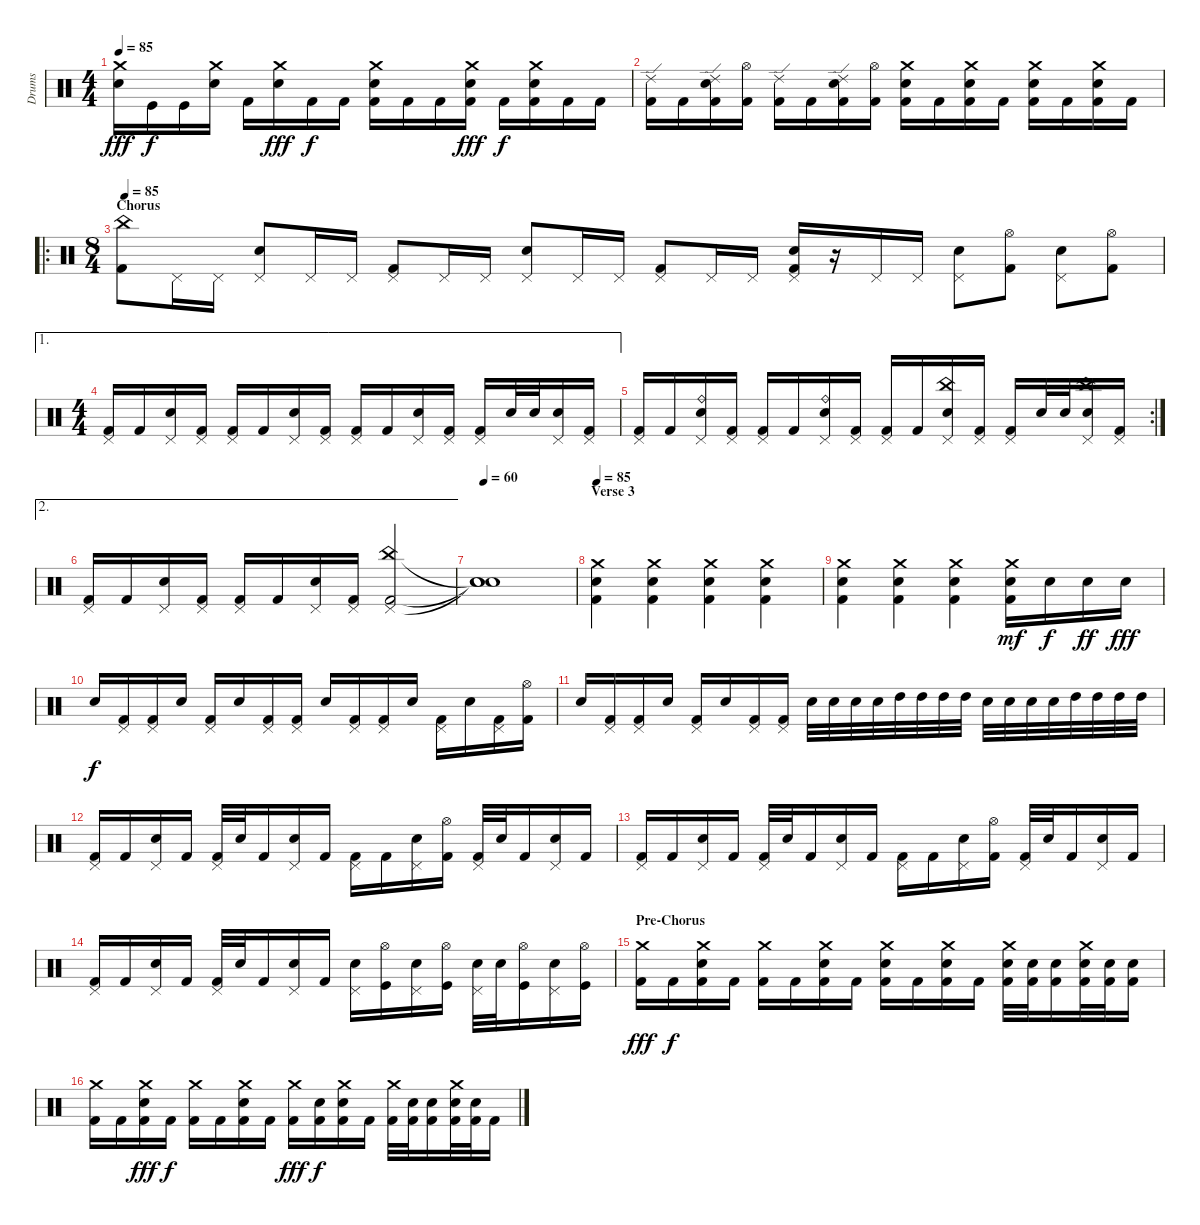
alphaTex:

\track ("Drums" "Drums") {instrument percussion}
\staff {score}
\articulation defaults
\ts (4 4)
\tempo 85
\clef neutral
\ks c
("Crash medium (hit)" "Electric Snare (hit)").16{dy fff} "Kick (hit)".16{dy f} "Kick (hit)".16 ("Crash medium (hit)" "Electric Snare (hit)").16 "Kick (hit) 2".16 ("Crash medium (hit)" "Electric Snare (hit)").16{dy fff} "Kick (hit) 2".16{dy f} "Kick (hit) 2".16 ("Crash medium (hit)" "Electric Snare (hit)" "Kick (hit) 2").16 "Kick (hit) 2".16 "Kick (hit) 2".16 ("Crash medium (hit)" "Electric Snare (hit)" "Kick (hit) 2").16{dy fff} "Kick (hit) 2".16{dy f} ("Crash medium (hit)" "Electric Snare (hit)" "Kick (hit) 2").16 "Kick (hit) 2".16 "Kick (hit) 2".16 |
("Ride (edge) 2" "Kick (hit) 2").16 "Kick (hit) 2".16 ("Ride (edge) 2" "Electric Snare (hit)" "Kick (hit) 2").16 ("Hi-Hat (open)" "Kick (hit) 2").16 ("Ride (edge) 2" "Kick (hit) 2").16 "Kick (hit) 2".16 ("Ride (edge) 2" "Electric Snare (hit)" "Kick (hit) 2").16 ("Hi-Hat (open)" "Kick (hit) 2").16 ("Crash medium (hit)" "Electric Snare (hit)" "Kick (hit) 2").16 "Kick (hit) 2".16 ("Crash medium (hit)" "Electric Snare (hit)" "Kick (hit) 2").16 "Kick (hit) 2".16 ("Crash medium (hit)" "Electric Snare (hit)" "Kick (hit) 2").16 "Kick (hit) 2".16 ("Crash medium (hit)" "Electric Snare (hit)" "Kick (hit) 2").16 "Kick (hit) 2".16 |
\ro
\ts (8 4)
\section ("" "Chorus")
\tempo 85
("China (hit)" "Kick (hit) 2").8 "Pedal Hi-Hat (hit)".16 "Pedal Hi-Hat (hit)".16 ("Pedal Hi-Hat (hit)" "Electric Snare (hit)").8 "Pedal Hi-Hat (hit)".16 "Pedal Hi-Hat (hit)".16 ("Pedal Hi-Hat (hit)" "Kick (hit) 2").8 "Pedal Hi-Hat (hit)".16 "Pedal Hi-Hat (hit)".16 ("Pedal Hi-Hat (hit)" "Electric Snare (hit)").8 "Pedal Hi-Hat (hit)".16 "Pedal Hi-Hat (hit)".16 ("Pedal Hi-Hat (hit)" "Kick (hit) 2").8 "Pedal Hi-Hat (hit)".16 "Pedal Hi-Hat (hit)".16 ("Pedal Hi-Hat (hit)" "Electric Snare (hit)" "Kick (hit) 2").16 r.16 "Pedal Hi-Hat (hit)".16 "Pedal Hi-Hat (hit)".16 ("Pedal Hi-Hat (hit)" "Electric Snare (hit)").8 ("Hi-Hat (open)" "Kick (hit) 2").8 ("Pedal Hi-Hat (hit)" "Electric Snare (hit)").8 ("Hi-Hat (open)" "Kick (hit) 2").8 |
\ae 1
\ts (4 4)
("Pedal Hi-Hat (hit)" "Kick (hit) 2").16 "Kick (hit) 2".16 ("Pedal Hi-Hat (hit)" "Electric Snare (hit)").16 ("Pedal Hi-Hat (hit)" "Kick (hit) 2").16 ("Pedal Hi-Hat (hit)" "Kick (hit) 2").16 "Kick (hit) 2".16 ("Pedal Hi-Hat (hit)" "Electric Snare (hit)").16 ("Pedal Hi-Hat (hit)" "Kick (hit) 2").16 ("Pedal Hi-Hat (hit)" "Kick (hit) 2").16 "Kick (hit) 2".16 ("Pedal Hi-Hat (hit)" "Electric Snare (hit)").16 ("Pedal Hi-Hat (hit)" "Kick (hit) 2").16 ("Pedal Hi-Hat (hit)" "Kick (hit) 2").16 "Electric Snare (hit)".32 "Electric Snare (hit)".32 ("Pedal Hi-Hat (hit)" "Electric Snare (hit)").16 ("Pedal Hi-Hat (hit)" "Kick (hit) 2").16 |
\rc 2
("Pedal Hi-Hat (hit)" "Kick (hit) 2").16 "Kick (hit) 2".16 ("Ride (bell)" "Pedal Hi-Hat (hit)" "Electric Snare (hit)").16 ("Pedal Hi-Hat (hit)" "Kick (hit) 2").16 ("Pedal Hi-Hat (hit)" "Kick (hit) 2").16 "Kick (hit) 2".16 ("Ride (bell)" "Pedal Hi-Hat (hit)" "Electric Snare (hit)").16 ("Pedal Hi-Hat (hit)" "Kick (hit) 2").16 ("Pedal Hi-Hat (hit)" "Kick (hit) 2").16 "Kick (hit) 2".16 ("China (hit)" "Pedal Hi-Hat (hit)" "Electric Snare (hit)").16 ("Pedal Hi-Hat (hit)" "Kick (hit) 2").16 ("Pedal Hi-Hat (hit)" "Kick (hit) 2").16 "Electric Snare (hit)".32 "Electric Snare (hit)".32 ("China (hit)" "Pedal Hi-Hat (hit)" "Electric Snare (hit)").16 ("Pedal Hi-Hat (hit)" "Kick (hit) 2").16 |
\ae 2
("Pedal Hi-Hat (hit)" "Kick (hit) 2").16 "Kick (hit) 2".16 ("Pedal Hi-Hat (hit)" "Electric Snare (hit)").16 ("Pedal Hi-Hat (hit)" "Kick (hit) 2").16 ("Pedal Hi-Hat (hit)" "Kick (hit) 2").16 "Kick (hit) 2".16 ("Pedal Hi-Hat (hit)" "Electric Snare (hit)").16 ("Pedal Hi-Hat (hit)" "Kick (hit) 2").16 ("China (hit)" "Pedal Hi-Hat (hit)" "Kick (hit) 2").2{volume 16} |
\tempo 60
("Snare (hit)"{t} "Snare (hit)"{t} "Snare (hit)"{t}).1 |
\section ("" "Verse 3")
\tempo 85
("Crash medium (hit)" "Electric Snare (hit)" "Kick (hit) 2").4{volume 13} ("Crash medium (hit)" "Electric Snare (hit)" "Kick (hit) 2").4 ("Crash medium (hit)" "Electric Snare (hit)" "Kick (hit) 2").4 ("Crash medium (hit)" "Electric Snare (hit)" "Kick (hit) 2").4 |
("Crash medium (hit)" "Electric Snare (hit)" "Kick (hit) 2").4 ("Crash medium (hit)" "Electric Snare (hit)" "Kick (hit) 2").4 ("Crash medium (hit)" "Electric Snare (hit)" "Kick (hit) 2").4 ("Crash medium (hit)" "Electric Snare (hit)" "Kick (hit) 2").16{dy mf} "Electric Snare (hit)".16{dy f} "Electric Snare (hit)".16{dy ff} "Electric Snare (hit)".16{dy fff} |
"Electric Snare (hit)".16{dy f} ("Pedal Hi-Hat (hit)" "Kick (hit) 2").16 ("Pedal Hi-Hat (hit)" "Kick (hit) 2").16 "Electric Snare (hit)".16 ("Pedal Hi-Hat (hit)" "Kick (hit) 2").16 "Electric Snare (hit)".16 ("Pedal Hi-Hat (hit)" "Kick (hit) 2").16 ("Pedal Hi-Hat (hit)" "Kick (hit) 2").16 "Electric Snare (hit)".16 ("Pedal Hi-Hat (hit)" "Kick (hit) 2").16 ("Pedal Hi-Hat (hit)" "Kick (hit) 2").16 "Electric Snare (hit)".16 ("Pedal Hi-Hat (hit)" "Kick (hit) 2").16 "Electric Snare (hit)".16 ("Pedal Hi-Hat (hit)" "Kick (hit) 2").16 ("Hi-Hat (open)" "Kick (hit) 2").16 |
"Electric Snare (hit)".16 ("Pedal Hi-Hat (hit)" "Kick (hit) 2").16 ("Pedal Hi-Hat (hit)" "Kick (hit) 2").16 "Electric Snare (hit)".16 ("Pedal Hi-Hat (hit)" "Kick (hit) 2").16 "Electric Snare (hit)".16 ("Pedal Hi-Hat (hit)" "Kick (hit) 2").16 ("Pedal Hi-Hat (hit)" "Kick (hit) 2").16 "Electric Snare (hit)".32 "Electric Snare (hit)".32 "Electric Snare (hit)".32 "Electric Snare (hit)".32 "High Tom (hit)".32 "High Tom (hit)".32 "High Tom (hit)".32 "High Tom (hit)".32 "Electric Snare (hit)".32 "Electric Snare (hit)".32 "Electric Snare (hit)".32 "Electric Snare (hit)".32 "High Tom (hit)".32 "High Tom (hit)".32 "High Tom (hit)".32 "High Tom (hit)".32 |
("Pedal Hi-Hat (hit)" "Kick (hit) 2").16 "Kick (hit) 2".16 ("Pedal Hi-Hat (hit)" "Electric Snare (hit)").16 "Kick (hit) 2".16 ("Pedal Hi-Hat (hit)" "Kick (hit) 2").32 "Electric Snare (hit)".32 "Kick (hit) 2".16 ("Pedal Hi-Hat (hit)" "Electric Snare (hit)").16 "Kick (hit) 2".16 ("Pedal Hi-Hat (hit)" "Kick (hit) 2").16 "Kick (hit) 2".16 ("Pedal Hi-Hat (hit)" "Electric Snare (hit)").16 ("Hi-Hat (open)" "Kick (hit) 2").16 ("Pedal Hi-Hat (hit)" "Kick (hit) 2").32 "Electric Snare (hit)".32 "Kick (hit) 2".16 ("Pedal Hi-Hat (hit)" "Electric Snare (hit)").16 "Kick (hit) 2".16 |
("Pedal Hi-Hat (hit)" "Kick (hit) 2").16 "Kick (hit) 2".16 ("Pedal Hi-Hat (hit)" "Electric Snare (hit)").16 "Kick (hit) 2".16 ("Pedal Hi-Hat (hit)" "Kick (hit) 2").32 "Electric Snare (hit)".32 "Kick (hit) 2".16 ("Pedal Hi-Hat (hit)" "Electric Snare (hit)").16 "Kick (hit) 2".16 ("Pedal Hi-Hat (hit)" "Kick (hit) 2").16 "Kick (hit) 2".16 ("Pedal Hi-Hat (hit)" "Electric Snare (hit)").16 ("Hi-Hat (open)" "Kick (hit) 2").16 ("Pedal Hi-Hat (hit)" "Kick (hit) 2").32 "Electric Snare (hit)".32 "Kick (hit) 2".16 ("Pedal Hi-Hat (hit)" "Electric Snare (hit)").16 "Kick (hit) 2".16 |
("Pedal Hi-Hat (hit)" "Kick (hit) 2").16 "Kick (hit) 2".16 ("Pedal Hi-Hat (hit)" "Electric Snare (hit)").16 "Kick (hit) 2".16 ("Pedal Hi-Hat (hit)" "Kick (hit) 2").32 "Electric Snare (hit)".32 "Kick (hit) 2".16 ("Pedal Hi-Hat (hit)" "Electric Snare (hit)").16 "Kick (hit) 2".16 ("Pedal Hi-Hat (hit)" "Electric Snare (hit)").16 ("Hi-Hat (open)" "Kick (hit)").16 ("Pedal Hi-Hat (hit)" "Electric Snare (hit)").16 ("Hi-Hat (open)" "Kick (hit)").16 ("Pedal Hi-Hat (hit)" "Electric Snare (hit)").32 "Electric Snare (hit)".32 ("Hi-Hat (open)" "Kick (hit)").16 ("Pedal Hi-Hat (hit)" "Electric Snare (hit)").16 ("Hi-Hat (open)" "Kick (hit)").16 |
\section ("" "Pre-Chorus")
("Crash medium (hit)" "Kick (hit) 2").16{dy fff} "Kick (hit) 2".16{dy f} ("Crash medium (hit)" "Electric Snare (hit)" "Kick (hit) 2").16 "Kick (hit) 2".16 ("Crash medium (hit)" "Kick (hit) 2").16 "Kick (hit) 2".16 ("Crash medium (hit)" "Electric Snare (hit)" "Kick (hit) 2").16 "Kick (hit) 2".16 ("Crash medium (hit)" "Electric Snare (hit)" "Kick (hit) 2").16 "Kick (hit) 2".16 ("Crash medium (hit)" "Electric Snare (hit)" "Kick (hit) 2").16 "Kick (hit) 2".16 ("Crash medium (hit)" "Electric Snare (hit)" "Kick (hit) 2").32 ("Electric Snare (hit)" "Kick (hit) 2").32 ("Electric Snare (hit)" "Kick (hit) 2").16 ("Crash medium (hit)" "Electric Snare (hit)" "Kick (hit) 2").32 ("Electric Snare (hit)" "Kick (hit) 2").32 ("Electric Snare (hit)" "Kick (hit) 2").16 |
("Crash medium (hit)" "Kick (hit) 2").16 "Kick (hit) 2".16 ("Crash medium (hit)" "Electric Snare (hit)" "Kick (hit) 2").16{dy fff} "Kick (hit) 2".16{dy f} ("Crash medium (hit)" "Kick (hit) 2").16 "Kick (hit) 2".16 ("Crash medium (hit)" "Electric Snare (hit)" "Kick (hit) 2").16 "Kick (hit) 2".16 ("Crash medium (hit)" "Kick (hit) 2").16{dy fff} ("Electric Snare (hit)" "Kick (hit) 2").16{dy f} ("Crash medium (hit)" "Electric Snare (hit)" "Kick (hit) 2").16 "Kick (hit) 2".16 ("Crash medium (hit)" "Kick (hit) 2").32 ("Electric Snare (hit)" "Kick (hit) 2").32 ("Electric Snare (hit)" "Kick (hit) 2").16 ("Crash medium (hit)" "Electric Snare (hit)" "Kick (hit) 2").32 ("Electric Snare (hit)" "Kick (hit) 2").32 "Kick (hit) 2".16
